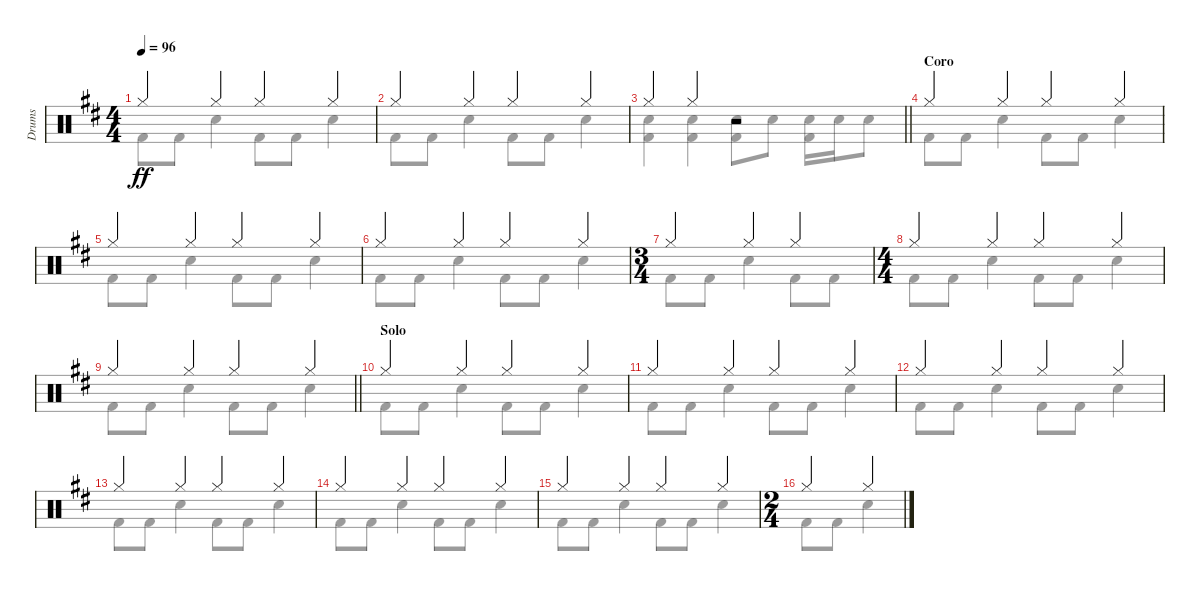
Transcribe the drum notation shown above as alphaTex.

\track ("Drums" "Drums") {instrument percussion}
\staff {score}
\articulation defaults
\voice
\ts (4 4)
\tempo 96
\clef neutral
\ks d "Hi-Hat (closed)".4{dy ff} "Hi-Hat (closed)".4 "Hi-Hat (closed)".4 "Hi-Hat (closed)".4
|
"Hi-Hat (closed)".4 "Hi-Hat (closed)".4 "Hi-Hat (closed)".4 "Hi-Hat (closed)".4 |
\barLineRight lightlight "Hi-Hat (closed)".4 "Hi-Hat (closed)".4
r.2 |
\section ("" "Coro")
"Hi-Hat (closed)".4 "Hi-Hat (closed)".4 "Hi-Hat (closed)".4 "Hi-Hat (closed)".4 |
"Hi-Hat (closed)".4 "Hi-Hat (closed)".4 "Hi-Hat (closed)".4 "Hi-Hat (closed)".4 |
"Hi-Hat (closed)".4 "Hi-Hat (closed)".4 "Hi-Hat (closed)".4 "Hi-Hat (closed)".4 |
\ts (3 4)
"Hi-Hat (closed)".4 "Hi-Hat (closed)".4 "Hi-Hat (closed)".4 |
\ts (4 4)
"Hi-Hat (closed)".4 "Hi-Hat (closed)".4 "Hi-Hat (closed)".4 "Hi-Hat (closed)".4 |
\barLineRight lightlight "Hi-Hat (closed)".4 "Hi-Hat (closed)".4 "Hi-Hat (closed)".4 "Hi-Hat (closed)".4
|
\section ("" "Solo")
"Hi-Hat (closed)".4 "Hi-Hat (closed)".4 "Hi-Hat (closed)".4 "Hi-Hat (closed)".4 |
"Hi-Hat (closed)".4 "Hi-Hat (closed)".4 "Hi-Hat (closed)".4 "Hi-Hat (closed)".4 |
"Hi-Hat (closed)".4 "Hi-Hat (closed)".4 "Hi-Hat (closed)".4 "Hi-Hat (closed)".4 |
"Hi-Hat (closed)".4 "Hi-Hat (closed)".4 "Hi-Hat (closed)".4 "Hi-Hat (closed)".4 |
"Hi-Hat (closed)".4 "Hi-Hat (closed)".4 "Hi-Hat (closed)".4 "Hi-Hat (closed)".4 |
"Hi-Hat (closed)".4 "Hi-Hat (closed)".4 "Hi-Hat (closed)".4 "Hi-Hat (closed)".4 |
\ts (2 4)
"Hi-Hat (closed)".4 "Hi-Hat (closed)".4
\voice
\clef neutral
\ottava regular
\simile none
\ks d "Kick (hit) 2".8{dy ff} "Kick (hit) 2".8 "Electric Snare (hit)".4 "Kick (hit) 2".8 "Kick (hit) 2".8 "Electric Snare (hit)".4
|
"Kick (hit) 2".8 "Kick (hit) 2".8 "Electric Snare (hit)".4 "Kick (hit) 2".8 "Kick (hit) 2".8 "Electric Snare (hit)".4 |
\barLineRight lightlight
("Electric Snare (hit)" "Kick (hit) 2").4 ("Electric Snare (hit)" "Kick (hit) 2").4 ("Electric Snare (hit)" "Kick (hit) 2").8 "Electric Snare (hit)".8 ("Electric Snare (hit)" "Kick (hit) 2").16 "Electric Snare (hit)".16 "Electric Snare (hit)".8 |
"Kick (hit) 2".8 "Kick (hit) 2".8 "Electric Snare (hit)".4 "Kick (hit) 2".8 "Kick (hit) 2".8 "Electric Snare (hit)".4 |
"Kick (hit) 2".8 "Kick (hit) 2".8 "Electric Snare (hit)".4 "Kick (hit) 2".8 "Kick (hit) 2".8 "Electric Snare (hit)".4 |
"Kick (hit) 2".8 "Kick (hit) 2".8 "Electric Snare (hit)".4 "Kick (hit) 2".8 "Kick (hit) 2".8 "Electric Snare (hit)".4 |
"Kick (hit) 2".8 "Kick (hit) 2".8 "Electric Snare (hit)".4 "Kick (hit) 2".8 "Kick (hit) 2".8 |
"Kick (hit) 2".8 "Kick (hit) 2".8 "Electric Snare (hit)".4 "Kick (hit) 2".8 "Kick (hit) 2".8 "Electric Snare (hit)".4 |
\barLineRight lightlight "Kick (hit) 2".8 "Kick (hit) 2".8 "Electric Snare (hit)".4 "Kick (hit) 2".8 "Kick (hit) 2".8 "Electric Snare (hit)".4
|
"Kick (hit) 2".8 "Kick (hit) 2".8 "Electric Snare (hit)".4 "Kick (hit) 2".8 "Kick (hit) 2".8 "Electric Snare (hit)".4 |
"Kick (hit) 2".8 "Kick (hit) 2".8 "Electric Snare (hit)".4 "Kick (hit) 2".8 "Kick (hit) 2".8 "Electric Snare (hit)".4 |
"Kick (hit) 2".8 "Kick (hit) 2".8 "Electric Snare (hit)".4 "Kick (hit) 2".8 "Kick (hit) 2".8 "Electric Snare (hit)".4 |
"Kick (hit) 2".8 "Kick (hit) 2".8 "Electric Snare (hit)".4 "Kick (hit) 2".8 "Kick (hit) 2".8 "Electric Snare (hit)".4 |
"Kick (hit) 2".8 "Kick (hit) 2".8 "Electric Snare (hit)".4 "Kick (hit) 2".8 "Kick (hit) 2".8 "Electric Snare (hit)".4 |
"Kick (hit) 2".8 "Kick (hit) 2".8 "Electric Snare (hit)".4 "Kick (hit) 2".8 "Kick (hit) 2".8 "Electric Snare (hit)".4 |
"Kick (hit) 2".8 "Kick (hit) 2".8 "Electric Snare (hit)".4
